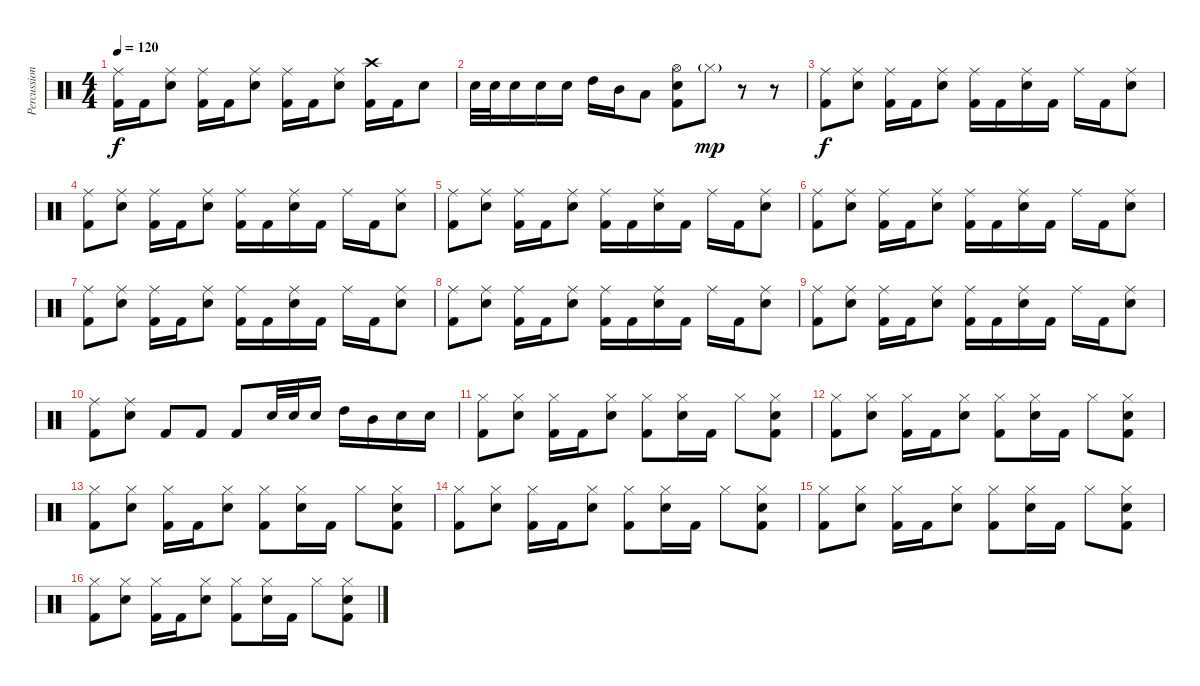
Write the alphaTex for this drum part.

\track ("Percussion" "Percussion") {instrument percussion}
\staff {score}
\articulation defaults
\ts (4 4)
\tempo 120
\clef neutral
\ks c
("Ride (middle)" "Kick (hit) 2").16{dy f} "Kick (hit) 2".16 ("Ride (middle)" "Electric Snare (hit)").8 ("Ride (middle)" "Kick (hit) 2").16 "Kick (hit) 2".16 ("Ride (middle)" "Electric Snare (hit)").8 ("Ride (middle)" "Kick (hit) 2").16 "Kick (hit) 2".16 ("Ride (middle)" "Electric Snare (hit)").8 ("Crash high (hit)" "Kick (hit) 2").16 "Kick (hit) 2".16 "Electric Snare (hit)".8 |
"Electric Snare (hit)".32 "Electric Snare (hit)".32 "Electric Snare (hit)".16 "Electric Snare (hit)".16 "Electric Snare (hit)".16 "High Tom (hit)".16 "Mid Tom (hit)".16 "Low Tom (hit)".8 ("Hi-Hat (open)" "Electric Snare (hit)" "Kick (hit) 2").8 "Hi-Hat (closed)"{g}.8{dy mp} r.8 r.8 |
("Ride (middle)" "Kick (hit) 2").8{dy f} ("Ride (middle)" "Electric Snare (hit)").8 ("Ride (middle)" "Kick (hit) 2").16 "Kick (hit) 2".16 ("Ride (middle)" "Electric Snare (hit)").8 ("Ride (middle)" "Kick (hit) 2").16 "Kick (hit) 2".16 ("Ride (middle)" "Electric Snare (hit)").16 "Kick (hit) 2".16 "Ride (middle)".16 "Kick (hit) 2".16 ("Ride (middle)" "Electric Snare (hit)").8 |
("Ride (middle)" "Kick (hit) 2").8 ("Ride (middle)" "Electric Snare (hit)").8 ("Ride (middle)" "Kick (hit) 2").16 "Kick (hit) 2".16 ("Ride (middle)" "Electric Snare (hit)").8 ("Ride (middle)" "Kick (hit) 2").16 "Kick (hit) 2".16 ("Ride (middle)" "Electric Snare (hit)").16 "Kick (hit) 2".16 "Ride (middle)".16 "Kick (hit) 2".16 ("Ride (middle)" "Electric Snare (hit)").8 |
("Ride (middle)" "Kick (hit) 2").8 ("Ride (middle)" "Electric Snare (hit)").8 ("Ride (middle)" "Kick (hit) 2").16 "Kick (hit) 2".16 ("Ride (middle)" "Electric Snare (hit)").8 ("Ride (middle)" "Kick (hit) 2").16 "Kick (hit) 2".16 ("Ride (middle)" "Electric Snare (hit)").16 "Kick (hit) 2".16 "Ride (middle)".16 "Kick (hit) 2".16 ("Ride (middle)" "Electric Snare (hit)").8 |
("Ride (middle)" "Kick (hit) 2").8 ("Ride (middle)" "Electric Snare (hit)").8 ("Ride (middle)" "Kick (hit) 2").16 "Kick (hit) 2".16 ("Ride (middle)" "Electric Snare (hit)").8 ("Ride (middle)" "Kick (hit) 2").16 "Kick (hit) 2".16 ("Ride (middle)" "Electric Snare (hit)").16 "Kick (hit) 2".16 "Ride (middle)".16 "Kick (hit) 2".16 ("Ride (middle)" "Electric Snare (hit)").8 |
("Ride (middle)" "Kick (hit) 2").8 ("Ride (middle)" "Electric Snare (hit)").8 ("Ride (middle)" "Kick (hit) 2").16 "Kick (hit) 2".16 ("Ride (middle)" "Electric Snare (hit)").8 ("Ride (middle)" "Kick (hit) 2").16 "Kick (hit) 2".16 ("Ride (middle)" "Electric Snare (hit)").16 "Kick (hit) 2".16 "Ride (middle)".16 "Kick (hit) 2".16 ("Ride (middle)" "Electric Snare (hit)").8 |
("Ride (middle)" "Kick (hit) 2").8 ("Ride (middle)" "Electric Snare (hit)").8 ("Ride (middle)" "Kick (hit) 2").16 "Kick (hit) 2".16 ("Ride (middle)" "Electric Snare (hit)").8 ("Ride (middle)" "Kick (hit) 2").16 "Kick (hit) 2".16 ("Ride (middle)" "Electric Snare (hit)").16 "Kick (hit) 2".16 "Ride (middle)".16 "Kick (hit) 2".16 ("Ride (middle)" "Electric Snare (hit)").8 |
("Ride (middle)" "Kick (hit) 2").8 ("Ride (middle)" "Electric Snare (hit)").8 ("Ride (middle)" "Kick (hit) 2").16 "Kick (hit) 2".16 ("Ride (middle)" "Electric Snare (hit)").8 ("Ride (middle)" "Kick (hit) 2").16 "Kick (hit) 2".16 ("Ride (middle)" "Electric Snare (hit)").16 "Kick (hit) 2".16 "Ride (middle)".16 "Kick (hit) 2".16 ("Ride (middle)" "Electric Snare (hit)").8 |
("Ride (middle)" "Kick (hit) 2").8 ("Ride (middle)" "Electric Snare (hit)").8 "Kick (hit) 2".8 "Kick (hit) 2".8 "Kick (hit) 2".8 "Electric Snare (hit)".32 "Electric Snare (hit)".32 "Electric Snare (hit)".16 "High Tom (hit)".16 "Mid Tom (hit)".16 "Electric Snare (hit)".16 "Electric Snare (hit)".16 |
("Hi-Hat (closed)" "Kick (hit) 2").8 ("Hi-Hat (closed)" "Electric Snare (hit)").8 ("Hi-Hat (closed)" "Kick (hit) 2").16 "Kick (hit) 2".16 ("Hi-Hat (closed)" "Electric Snare (hit)").8 ("Hi-Hat (closed)" "Kick (hit) 2").8 ("Hi-Hat (closed)" "Electric Snare (hit)").16 "Kick (hit) 2".16 "Hi-Hat (closed)".8 ("Hi-Hat (closed)" "Electric Snare (hit)" "Kick (hit) 2").8 |
("Hi-Hat (closed)" "Kick (hit) 2").8 ("Hi-Hat (closed)" "Electric Snare (hit)").8 ("Hi-Hat (closed)" "Kick (hit) 2").16 "Kick (hit) 2".16 ("Hi-Hat (closed)" "Electric Snare (hit)").8 ("Hi-Hat (closed)" "Kick (hit) 2").8 ("Hi-Hat (closed)" "Electric Snare (hit)").16 "Kick (hit) 2".16 "Hi-Hat (closed)".8 ("Hi-Hat (closed)" "Electric Snare (hit)" "Kick (hit) 2").8 |
("Hi-Hat (closed)" "Kick (hit) 2").8 ("Hi-Hat (closed)" "Electric Snare (hit)").8 ("Hi-Hat (closed)" "Kick (hit) 2").16 "Kick (hit) 2".16 ("Hi-Hat (closed)" "Electric Snare (hit)").8 ("Hi-Hat (closed)" "Kick (hit) 2").8 ("Hi-Hat (closed)" "Electric Snare (hit)").16 "Kick (hit) 2".16 "Hi-Hat (closed)".8 ("Hi-Hat (closed)" "Electric Snare (hit)" "Kick (hit) 2").8 |
("Hi-Hat (closed)" "Kick (hit) 2").8 ("Hi-Hat (closed)" "Electric Snare (hit)").8 ("Hi-Hat (closed)" "Kick (hit) 2").16 "Kick (hit) 2".16 ("Hi-Hat (closed)" "Electric Snare (hit)").8 ("Hi-Hat (closed)" "Kick (hit) 2").8 ("Hi-Hat (closed)" "Electric Snare (hit)").16 "Kick (hit) 2".16 "Hi-Hat (closed)".8 ("Hi-Hat (closed)" "Electric Snare (hit)" "Kick (hit) 2").8 |
("Hi-Hat (closed)" "Kick (hit) 2").8 ("Hi-Hat (closed)" "Electric Snare (hit)").8 ("Hi-Hat (closed)" "Kick (hit) 2").16 "Kick (hit) 2".16 ("Hi-Hat (closed)" "Electric Snare (hit)").8 ("Hi-Hat (closed)" "Kick (hit) 2").8 ("Hi-Hat (closed)" "Electric Snare (hit)").16 "Kick (hit) 2".16 "Hi-Hat (closed)".8 ("Hi-Hat (closed)" "Electric Snare (hit)" "Kick (hit) 2").8 |
("Hi-Hat (closed)" "Kick (hit) 2").8 ("Hi-Hat (closed)" "Electric Snare (hit)").8 ("Hi-Hat (closed)" "Kick (hit) 2").16 "Kick (hit) 2".16 ("Hi-Hat (closed)" "Electric Snare (hit)").8 ("Hi-Hat (closed)" "Kick (hit) 2").8 ("Hi-Hat (closed)" "Electric Snare (hit)").16 "Kick (hit) 2".16 "Hi-Hat (closed)".8 ("Hi-Hat (closed)" "Electric Snare (hit)" "Kick (hit) 2").8
